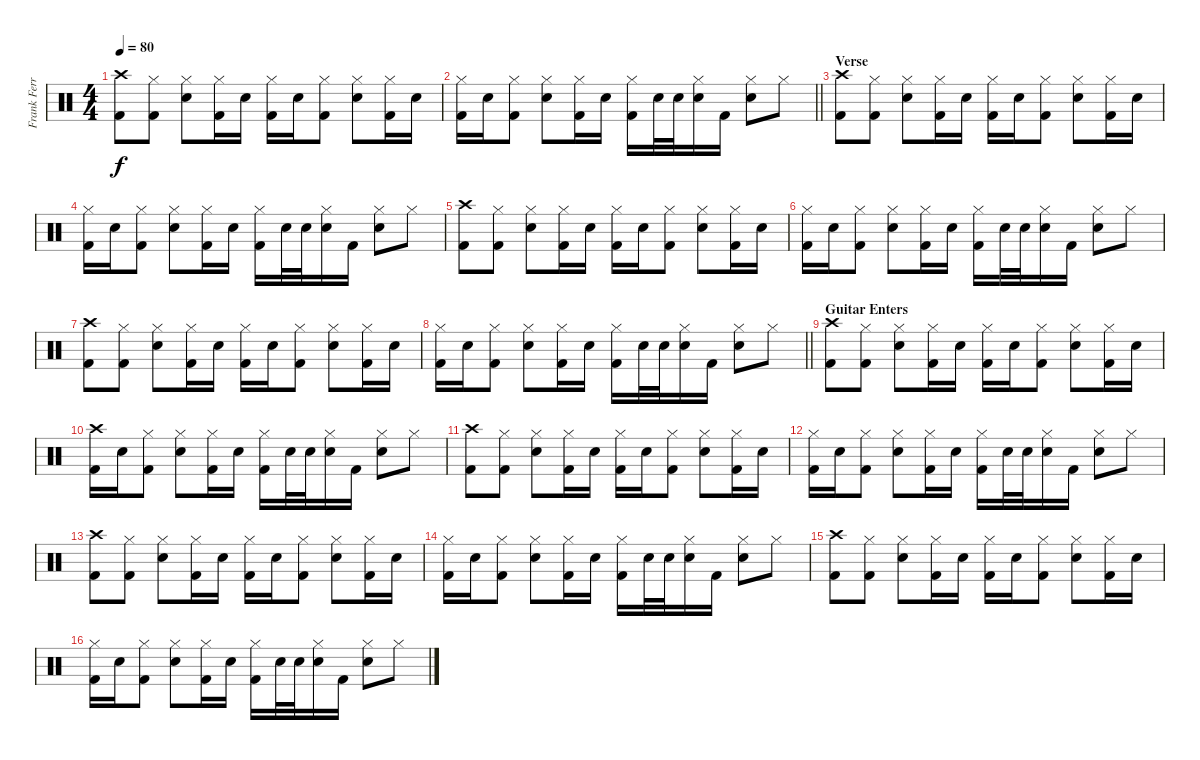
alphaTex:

\track ("Frank Ferrer" "Frank Ferr") {instrument percussion}
\staff {score}
\articulation defaults
\ts (4 4)
\tempo 80
\clef neutral
\ks c
("Crash high (hit)" "Kick (hit) 2").8{dy f} ("Hi-Hat (closed)" "Kick (hit) 2").8 ("Hi-Hat (closed)" "Snare (hit) 2").8 ("Hi-Hat (closed)" "Kick (hit) 2").16 "Snare (hit) 2".16 ("Hi-Hat (closed)" "Kick (hit) 2").16 "Snare (hit) 2".16 ("Hi-Hat (closed)" "Kick (hit) 2").8 ("Hi-Hat (closed)" "Snare (hit) 2").8 ("Hi-Hat (closed)" "Kick (hit) 2").16 "Snare (hit) 2".16 |
\barLineRight lightlight
("Hi-Hat (closed)" "Kick (hit) 2").16 "Snare (hit) 2".16 ("Hi-Hat (closed)" "Kick (hit) 2").8 ("Hi-Hat (closed)" "Snare (hit) 2").8 ("Hi-Hat (closed)" "Kick (hit) 2").16 "Snare (hit) 2".16 ("Hi-Hat (closed)" "Kick (hit) 2").16 "Snare (hit) 2".32 "Snare (hit) 2".32 ("Hi-Hat (closed)" "Snare (hit) 2").16 "Kick (hit) 2".16 ("Hi-Hat (closed)" "Snare (hit) 2").8 "Hi-Hat (closed)".8 |
\section ("" "Verse")
("Crash high (hit)" "Kick (hit) 2").8 ("Hi-Hat (closed)" "Kick (hit) 2").8 ("Hi-Hat (closed)" "Snare (hit) 2").8 ("Hi-Hat (closed)" "Kick (hit) 2").16 "Snare (hit) 2".16 ("Hi-Hat (closed)" "Kick (hit) 2").16 "Snare (hit) 2".16 ("Hi-Hat (closed)" "Kick (hit) 2").8 ("Hi-Hat (closed)" "Snare (hit) 2").8 ("Hi-Hat (closed)" "Kick (hit) 2").16 "Snare (hit) 2".16 |
("Hi-Hat (closed)" "Kick (hit) 2").16 "Snare (hit) 2".16 ("Hi-Hat (closed)" "Kick (hit) 2").8 ("Hi-Hat (closed)" "Snare (hit) 2").8 ("Hi-Hat (closed)" "Kick (hit) 2").16 "Snare (hit) 2".16 ("Hi-Hat (closed)" "Kick (hit) 2").16 "Snare (hit) 2".32 "Snare (hit) 2".32 ("Hi-Hat (closed)" "Snare (hit) 2").16 "Kick (hit) 2".16 ("Hi-Hat (closed)" "Snare (hit) 2").8 "Hi-Hat (closed)".8 |
("Crash high (hit)" "Kick (hit) 2").8 ("Hi-Hat (closed)" "Kick (hit) 2").8 ("Hi-Hat (closed)" "Snare (hit) 2").8 ("Hi-Hat (closed)" "Kick (hit) 2").16 "Snare (hit) 2".16 ("Hi-Hat (closed)" "Kick (hit) 2").16 "Snare (hit) 2".16 ("Hi-Hat (closed)" "Kick (hit) 2").8 ("Hi-Hat (closed)" "Snare (hit) 2").8 ("Hi-Hat (closed)" "Kick (hit) 2").16 "Snare (hit) 2".16 |
("Hi-Hat (closed)" "Kick (hit) 2").16 "Snare (hit) 2".16 ("Hi-Hat (closed)" "Kick (hit) 2").8 ("Hi-Hat (closed)" "Snare (hit) 2").8 ("Hi-Hat (closed)" "Kick (hit) 2").16 "Snare (hit) 2".16 ("Hi-Hat (closed)" "Kick (hit) 2").16 "Snare (hit) 2".32 "Snare (hit) 2".32 ("Hi-Hat (closed)" "Snare (hit) 2").16 "Kick (hit) 2".16 ("Hi-Hat (closed)" "Snare (hit) 2").8 "Hi-Hat (closed)".8 |
("Crash high (hit)" "Kick (hit) 2").8 ("Hi-Hat (closed)" "Kick (hit) 2").8 ("Hi-Hat (closed)" "Snare (hit) 2").8 ("Hi-Hat (closed)" "Kick (hit) 2").16 "Snare (hit) 2".16 ("Hi-Hat (closed)" "Kick (hit) 2").16 "Snare (hit) 2".16 ("Hi-Hat (closed)" "Kick (hit) 2").8 ("Hi-Hat (closed)" "Snare (hit) 2").8 ("Hi-Hat (closed)" "Kick (hit) 2").16 "Snare (hit) 2".16 |
\barLineRight lightlight
("Hi-Hat (closed)" "Kick (hit) 2").16 "Snare (hit) 2".16 ("Hi-Hat (closed)" "Kick (hit) 2").8 ("Hi-Hat (closed)" "Snare (hit) 2").8 ("Hi-Hat (closed)" "Kick (hit) 2").16 "Snare (hit) 2".16 ("Hi-Hat (closed)" "Kick (hit) 2").16 "Snare (hit) 2".32 "Snare (hit) 2".32 ("Hi-Hat (closed)" "Snare (hit) 2").16 "Kick (hit) 2".16 ("Hi-Hat (closed)" "Snare (hit) 2").8 "Hi-Hat (closed)".8 |
\section ("" "Guitar Enters")
("Crash high (hit)" "Kick (hit) 2").8 ("Hi-Hat (closed)" "Kick (hit) 2").8 ("Hi-Hat (closed)" "Snare (hit) 2").8 ("Hi-Hat (closed)" "Kick (hit) 2").16 "Snare (hit) 2".16 ("Hi-Hat (closed)" "Kick (hit) 2").16 "Snare (hit) 2".16 ("Hi-Hat (closed)" "Kick (hit) 2").8 ("Hi-Hat (closed)" "Snare (hit) 2").8 ("Hi-Hat (closed)" "Kick (hit) 2").16 "Snare (hit) 2".16 |
("Crash high (hit)" "Kick (hit) 2").16 "Snare (hit) 2".16 ("Hi-Hat (closed)" "Kick (hit) 2").8 ("Hi-Hat (closed)" "Snare (hit) 2").8 ("Hi-Hat (closed)" "Kick (hit) 2").16 "Snare (hit) 2".16 ("Hi-Hat (closed)" "Kick (hit) 2").16 "Snare (hit) 2".32 "Snare (hit) 2".32 ("Hi-Hat (closed)" "Snare (hit) 2").16 "Kick (hit) 2".16 ("Hi-Hat (closed)" "Snare (hit) 2").8 "Hi-Hat (closed)".8 |
("Crash high (hit)" "Kick (hit) 2").8 ("Hi-Hat (closed)" "Kick (hit) 2").8 ("Hi-Hat (closed)" "Snare (hit) 2").8 ("Hi-Hat (closed)" "Kick (hit) 2").16 "Snare (hit) 2".16 ("Hi-Hat (closed)" "Kick (hit) 2").16 "Snare (hit) 2".16 ("Hi-Hat (closed)" "Kick (hit) 2").8 ("Hi-Hat (closed)" "Snare (hit) 2").8 ("Hi-Hat (closed)" "Kick (hit) 2").16 "Snare (hit) 2".16 |
("Hi-Hat (closed)" "Kick (hit) 2").16 "Snare (hit) 2".16 ("Hi-Hat (closed)" "Kick (hit) 2").8 ("Hi-Hat (closed)" "Snare (hit) 2").8 ("Hi-Hat (closed)" "Kick (hit) 2").16 "Snare (hit) 2".16 ("Hi-Hat (closed)" "Kick (hit) 2").16 "Snare (hit) 2".32 "Snare (hit) 2".32 ("Hi-Hat (closed)" "Snare (hit) 2").16 "Kick (hit) 2".16 ("Hi-Hat (closed)" "Snare (hit) 2").8 "Hi-Hat (closed)".8 |
("Crash high (hit)" "Kick (hit) 2").8 ("Hi-Hat (closed)" "Kick (hit) 2").8 ("Hi-Hat (closed)" "Snare (hit) 2").8 ("Hi-Hat (closed)" "Kick (hit) 2").16 "Snare (hit) 2".16 ("Hi-Hat (closed)" "Kick (hit) 2").16 "Snare (hit) 2".16 ("Hi-Hat (closed)" "Kick (hit) 2").8 ("Hi-Hat (closed)" "Snare (hit) 2").8 ("Hi-Hat (closed)" "Kick (hit) 2").16 "Snare (hit) 2".16 |
("Hi-Hat (closed)" "Kick (hit) 2").16 "Snare (hit) 2".16 ("Hi-Hat (closed)" "Kick (hit) 2").8 ("Hi-Hat (closed)" "Snare (hit) 2").8 ("Hi-Hat (closed)" "Kick (hit) 2").16 "Snare (hit) 2".16 ("Hi-Hat (closed)" "Kick (hit) 2").16 "Snare (hit) 2".32 "Snare (hit) 2".32 ("Hi-Hat (closed)" "Snare (hit) 2").16 "Kick (hit) 2".16 ("Hi-Hat (closed)" "Snare (hit) 2").8 "Hi-Hat (closed)".8 |
("Crash high (hit)" "Kick (hit) 2").8 ("Hi-Hat (closed)" "Kick (hit) 2").8 ("Hi-Hat (closed)" "Snare (hit) 2").8 ("Hi-Hat (closed)" "Kick (hit) 2").16 "Snare (hit) 2".16 ("Hi-Hat (closed)" "Kick (hit) 2").16 "Snare (hit) 2".16 ("Hi-Hat (closed)" "Kick (hit) 2").8 ("Hi-Hat (closed)" "Snare (hit) 2").8 ("Hi-Hat (closed)" "Kick (hit) 2").16 "Snare (hit) 2".16 |
("Hi-Hat (closed)" "Kick (hit) 2").16 "Snare (hit) 2".16 ("Hi-Hat (closed)" "Kick (hit) 2").8 ("Hi-Hat (closed)" "Snare (hit) 2").8 ("Hi-Hat (closed)" "Kick (hit) 2").16 "Snare (hit) 2".16 ("Hi-Hat (closed)" "Kick (hit) 2").16 "Snare (hit) 2".32 "Snare (hit) 2".32 ("Hi-Hat (closed)" "Snare (hit) 2").16 "Kick (hit) 2".16 ("Hi-Hat (closed)" "Snare (hit) 2").8 "Hi-Hat (closed)".8
